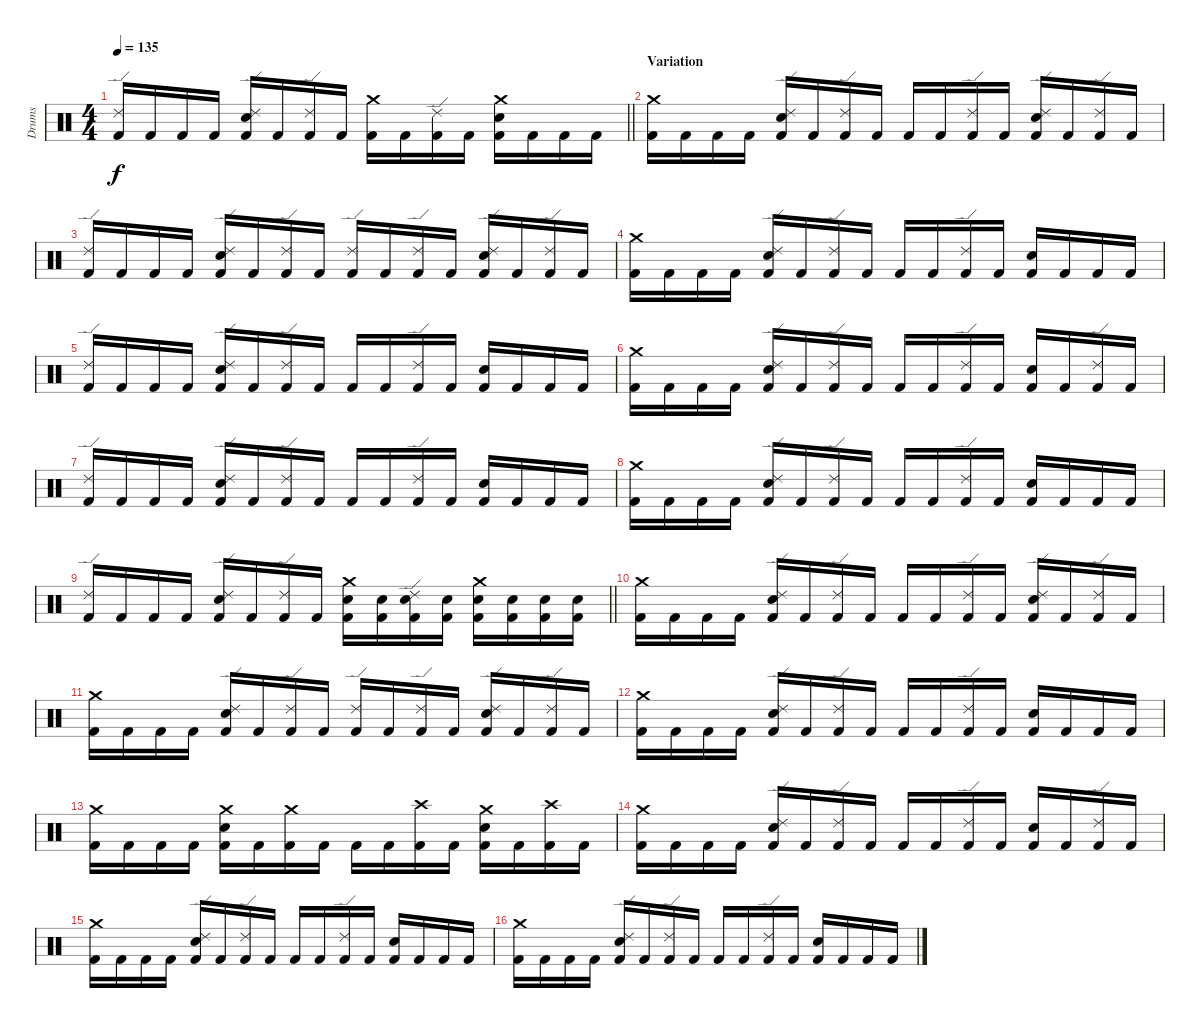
\track ("Drums" "Drums") {instrument percussion}
\staff {score}
\articulation defaults
\ts (4 4)
\tempo 135
\clef neutral
\barLineRight lightlight
\ks c
("Kick (hit) 2" "Ride (edge) 2").16{dy f} "Kick (hit) 2".16 "Kick (hit) 2".16 "Kick (hit) 2".16 ("Kick (hit) 2" "Snare (hit) 2" "Ride (edge) 2").16 "Kick (hit) 2".16 ("Kick (hit) 2" "Ride (edge) 2").16 "Kick (hit) 2".16 ("Kick (hit) 2" "Crash medium (hit)").16 "Kick (hit) 2".16 ("Kick (hit) 2" "Ride (edge) 2").16 "Kick (hit) 2".16 ("Kick (hit) 2" "Snare (hit) 2" "Crash medium (hit)").16 "Kick (hit) 2".16 "Kick (hit) 2".16 "Kick (hit) 2".16 |
\section ("" "Variation")
("Kick (hit) 2" "Crash medium (hit)").16 "Kick (hit) 2".16 "Kick (hit) 2".16 "Kick (hit) 2".16 ("Kick (hit) 2" "Snare (hit) 2" "Ride (edge) 2").16 "Kick (hit) 2".16 ("Kick (hit) 2" "Ride (edge) 2").16 "Kick (hit) 2".16 "Kick (hit) 2".16 "Kick (hit) 2".16 ("Kick (hit) 2" "Ride (edge) 2").16 "Kick (hit) 2".16 ("Kick (hit) 2" "Snare (hit) 2" "Ride (edge) 2").16 "Kick (hit) 2".16 ("Kick (hit) 2" "Ride (edge) 2").16 "Kick (hit) 2".16 |
("Kick (hit) 2" "Ride (edge) 2").16 "Kick (hit) 2".16 "Kick (hit) 2".16 "Kick (hit) 2".16 ("Kick (hit) 2" "Snare (hit) 2" "Ride (edge) 2").16 "Kick (hit) 2".16 ("Kick (hit) 2" "Ride (edge) 2").16 "Kick (hit) 2".16 ("Kick (hit) 2" "Ride (edge) 2").16 "Kick (hit) 2".16 ("Kick (hit) 2" "Ride (edge) 2").16 "Kick (hit) 2".16 ("Kick (hit) 2" "Snare (hit) 2" "Ride (edge) 2").16 "Kick (hit) 2".16 ("Kick (hit) 2" "Ride (edge) 2").16 "Kick (hit) 2".16 |
("Kick (hit) 2" "Crash medium (hit)").16 "Kick (hit) 2".16 "Kick (hit) 2".16 "Kick (hit) 2".16 ("Kick (hit) 2" "Snare (hit) 2" "Ride (edge) 2").16 "Kick (hit) 2".16 ("Kick (hit) 2" "Ride (edge) 2").16 "Kick (hit) 2".16 "Kick (hit) 2".16 "Kick (hit) 2".16 ("Kick (hit) 2" "Ride (edge) 2").16 "Kick (hit) 2".16 ("Kick (hit) 2" "Snare (hit) 2").16 "Kick (hit) 2".16 "Kick (hit) 2".16 "Kick (hit) 2".16 |
("Kick (hit) 2" "Ride (edge) 2").16 "Kick (hit) 2".16 "Kick (hit) 2".16 "Kick (hit) 2".16 ("Kick (hit) 2" "Snare (hit) 2" "Ride (edge) 2").16 "Kick (hit) 2".16 ("Kick (hit) 2" "Ride (edge) 2").16 "Kick (hit) 2".16 "Kick (hit) 2".16 "Kick (hit) 2".16 ("Kick (hit) 2" "Ride (edge) 2").16 "Kick (hit) 2".16 ("Kick (hit) 2" "Snare (hit) 2").16 "Kick (hit) 2".16 "Kick (hit) 2".16 "Kick (hit) 2".16 |
("Kick (hit) 2" "Crash medium (hit)").16 "Kick (hit) 2".16 "Kick (hit) 2".16 "Kick (hit) 2".16 ("Kick (hit) 2" "Snare (hit) 2" "Ride (edge) 2").16 "Kick (hit) 2".16 ("Kick (hit) 2" "Ride (edge) 2").16 "Kick (hit) 2".16 "Kick (hit) 2".16 "Kick (hit) 2".16 ("Kick (hit) 2" "Ride (edge) 2").16 "Kick (hit) 2".16 ("Kick (hit) 2" "Snare (hit) 2").16 "Kick (hit) 2".16 ("Kick (hit) 2" "Ride (edge) 2").16 "Kick (hit) 2".16 |
("Kick (hit) 2" "Ride (edge) 2").16 "Kick (hit) 2".16 "Kick (hit) 2".16 "Kick (hit) 2".16 ("Kick (hit) 2" "Snare (hit) 2" "Ride (edge) 2").16 "Kick (hit) 2".16 ("Kick (hit) 2" "Ride (edge) 2").16 "Kick (hit) 2".16 "Kick (hit) 2".16 "Kick (hit) 2".16 ("Kick (hit) 2" "Ride (edge) 2").16 "Kick (hit) 2".16 ("Kick (hit) 2" "Snare (hit) 2").16 "Kick (hit) 2".16 "Kick (hit) 2".16 "Kick (hit) 2".16 |
("Kick (hit) 2" "Crash medium (hit)").16 "Kick (hit) 2".16 "Kick (hit) 2".16 "Kick (hit) 2".16 ("Kick (hit) 2" "Snare (hit) 2" "Ride (edge) 2").16 "Kick (hit) 2".16 ("Kick (hit) 2" "Ride (edge) 2").16 "Kick (hit) 2".16 "Kick (hit) 2".16 "Kick (hit) 2".16 ("Kick (hit) 2" "Ride (edge) 2").16 "Kick (hit) 2".16 ("Kick (hit) 2" "Snare (hit) 2").16 "Kick (hit) 2".16 "Kick (hit) 2".16 "Kick (hit) 2".16 |
\barLineRight lightlight
("Kick (hit) 2" "Ride (edge) 2").16 "Kick (hit) 2".16 "Kick (hit) 2".16 "Kick (hit) 2".16 ("Kick (hit) 2" "Snare (hit) 2" "Ride (edge) 2").16 "Kick (hit) 2".16 ("Kick (hit) 2" "Ride (edge) 2").16 "Kick (hit) 2".16 ("Kick (hit) 2" "Snare (hit) 2" "Crash medium (hit)").16 ("Kick (hit) 2" "Snare (hit) 2").16 ("Kick (hit) 2" "Snare (hit) 2" "Ride (edge) 2").16 ("Kick (hit) 2" "Snare (hit) 2").16 ("Kick (hit) 2" "Snare (hit) 2" "Crash medium (hit)").16 ("Kick (hit) 2" "Snare (hit) 2").16 ("Kick (hit) 2" "Snare (hit) 2").16 ("Kick (hit) 2" "Snare (hit) 2").16 |
\section ("" "")
("Kick (hit) 2" "Crash medium (hit)").16 "Kick (hit) 2".16 "Kick (hit) 2".16 "Kick (hit) 2".16 ("Kick (hit) 2" "Snare (hit) 2" "Ride (edge) 2").16 "Kick (hit) 2".16 ("Kick (hit) 2" "Ride (edge) 2").16 "Kick (hit) 2".16 "Kick (hit) 2".16 "Kick (hit) 2".16 ("Kick (hit) 2" "Ride (edge) 2").16 "Kick (hit) 2".16 ("Kick (hit) 2" "Snare (hit) 2" "Ride (edge) 2").16 "Kick (hit) 2".16 ("Kick (hit) 2" "Ride (edge) 2").16 "Kick (hit) 2".16 |
("Kick (hit) 2" "Crash medium (hit)").16 "Kick (hit) 2".16 "Kick (hit) 2".16 "Kick (hit) 2".16 ("Kick (hit) 2" "Snare (hit) 2" "Ride (edge) 2").16 "Kick (hit) 2".16 ("Kick (hit) 2" "Ride (edge) 2").16 "Kick (hit) 2".16 ("Kick (hit) 2" "Ride (edge) 2").16 "Kick (hit) 2".16 ("Kick (hit) 2" "Ride (edge) 2").16 "Kick (hit) 2".16 ("Kick (hit) 2" "Snare (hit) 2" "Ride (edge) 2").16 "Kick (hit) 2".16 ("Kick (hit) 2" "Ride (edge) 2").16 "Kick (hit) 2".16 |
("Kick (hit) 2" "Crash medium (hit)").16 "Kick (hit) 2".16 "Kick (hit) 2".16 "Kick (hit) 2".16 ("Kick (hit) 2" "Snare (hit) 2" "Ride (edge) 2").16 "Kick (hit) 2".16 ("Kick (hit) 2" "Ride (edge) 2").16 "Kick (hit) 2".16 "Kick (hit) 2".16 "Kick (hit) 2".16 ("Kick (hit) 2" "Ride (edge) 2").16 "Kick (hit) 2".16 ("Kick (hit) 2" "Snare (hit) 2").16 "Kick (hit) 2".16 "Kick (hit) 2".16 "Kick (hit) 2".16 |
("Kick (hit) 2" "Crash medium (hit)").16 "Kick (hit) 2".16 "Kick (hit) 2".16 "Kick (hit) 2".16 ("Kick (hit) 2" "Snare (hit) 2" "Crash medium (hit)").16 "Kick (hit) 2".16 ("Kick (hit) 2" "Crash medium (hit)").16 "Kick (hit) 2".16 "Kick (hit) 2".16 "Kick (hit) 2".16 ("Kick (hit) 2" "Crash high (hit)").16 "Kick (hit) 2".16 ("Kick (hit) 2" "Snare (hit) 2" "Crash medium (hit)").16 "Kick (hit) 2".16 ("Kick (hit) 2" "Crash high (hit)").16 "Kick (hit) 2".16 |
("Kick (hit) 2" "Crash medium (hit)").16 "Kick (hit) 2".16 "Kick (hit) 2".16 "Kick (hit) 2".16 ("Kick (hit) 2" "Snare (hit) 2" "Ride (edge) 2").16 "Kick (hit) 2".16 ("Kick (hit) 2" "Ride (edge) 2").16 "Kick (hit) 2".16 "Kick (hit) 2".16 "Kick (hit) 2".16 ("Kick (hit) 2" "Ride (edge) 2").16 "Kick (hit) 2".16 ("Kick (hit) 2" "Snare (hit) 2").16 "Kick (hit) 2".16 ("Kick (hit) 2" "Ride (edge) 2").16 "Kick (hit) 2".16 |
("Kick (hit) 2" "Crash medium (hit)").16 "Kick (hit) 2".16 "Kick (hit) 2".16 "Kick (hit) 2".16 ("Kick (hit) 2" "Snare (hit) 2" "Ride (edge) 2").16 "Kick (hit) 2".16 ("Kick (hit) 2" "Ride (edge) 2").16 "Kick (hit) 2".16 "Kick (hit) 2".16 "Kick (hit) 2".16 ("Kick (hit) 2" "Ride (edge) 2").16 "Kick (hit) 2".16 ("Kick (hit) 2" "Snare (hit) 2").16 "Kick (hit) 2".16 "Kick (hit) 2".16 "Kick (hit) 2".16 |
("Kick (hit) 2" "Crash medium (hit)").16 "Kick (hit) 2".16 "Kick (hit) 2".16 "Kick (hit) 2".16 ("Kick (hit) 2" "Snare (hit) 2" "Ride (edge) 2").16 "Kick (hit) 2".16 ("Kick (hit) 2" "Ride (edge) 2").16 "Kick (hit) 2".16 "Kick (hit) 2".16 "Kick (hit) 2".16 ("Kick (hit) 2" "Ride (edge) 2").16 "Kick (hit) 2".16 ("Kick (hit) 2" "Snare (hit) 2").16 "Kick (hit) 2".16 "Kick (hit) 2".16 "Kick (hit) 2".16
